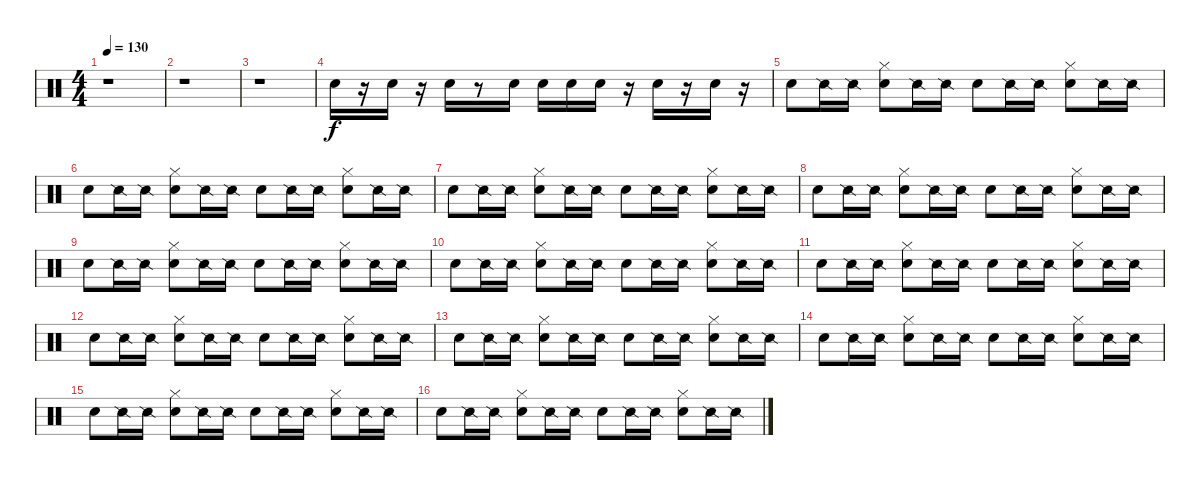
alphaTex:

\track "" {instrument percussion}
\staff {score}
\articulation defaults
\ts (4 4)
\tempo 130
\clef neutral
\ks c
r.1{dy f} |
r.1 |
r.1 |
"Snare (hit)".16 r.16 "Snare (hit)".16 r.16 "Snare (hit)".16 r.8 "Snare (hit)".16 "Snare (hit)".16 "Snare (hit)".16 "Snare (hit)".16 r.16 "Snare (hit)".16 r.16 "Snare (hit)".16 r.16 |
"Snare (hit)".8 "Snare (side stick) 2".16 "Snare (side stick) 2".16 ("Snare (hit)" "Hi-Hat (closed)").8 "Snare (side stick) 2".16 "Snare (side stick) 2".16 "Snare (hit)".8 "Snare (side stick) 2".16 "Snare (side stick) 2".16 ("Snare (hit)" "Hi-Hat (closed)").8 "Snare (side stick) 2".16 "Snare (side stick) 2".16 |
"Snare (hit)".8 "Snare (side stick) 2".16 "Snare (side stick) 2".16 ("Snare (hit)" "Hi-Hat (closed)").8 "Snare (side stick) 2".16 "Snare (side stick) 2".16 "Snare (hit)".8 "Snare (side stick) 2".16 "Snare (side stick) 2".16 ("Snare (hit)" "Hi-Hat (closed)").8 "Snare (side stick) 2".16 "Snare (side stick) 2".16 |
"Snare (hit)".8 "Snare (side stick) 2".16 "Snare (side stick) 2".16 ("Snare (hit)" "Hi-Hat (closed)").8 "Snare (side stick) 2".16 "Snare (side stick) 2".16 "Snare (hit)".8 "Snare (side stick) 2".16 "Snare (side stick) 2".16 ("Snare (hit)" "Hi-Hat (closed)").8 "Snare (side stick) 2".16 "Snare (side stick) 2".16 |
"Snare (hit)".8 "Snare (side stick) 2".16 "Snare (side stick) 2".16 ("Snare (hit)" "Hi-Hat (closed)").8 "Snare (side stick) 2".16 "Snare (side stick) 2".16 "Snare (hit)".8 "Snare (side stick) 2".16 "Snare (side stick) 2".16 ("Snare (hit)" "Hi-Hat (closed)").8 "Snare (side stick) 2".16 "Snare (side stick) 2".16 |
"Snare (hit)".8 "Snare (side stick) 2".16 "Snare (side stick) 2".16 ("Snare (hit)" "Hi-Hat (closed)").8 "Snare (side stick) 2".16 "Snare (side stick) 2".16 "Snare (hit)".8 "Snare (side stick) 2".16 "Snare (side stick) 2".16 ("Snare (hit)" "Hi-Hat (closed)").8 "Snare (side stick) 2".16 "Snare (side stick) 2".16 |
"Snare (hit)".8 "Snare (side stick) 2".16 "Snare (side stick) 2".16 ("Snare (hit)" "Hi-Hat (closed)").8 "Snare (side stick) 2".16 "Snare (side stick) 2".16 "Snare (hit)".8 "Snare (side stick) 2".16 "Snare (side stick) 2".16 ("Snare (hit)" "Hi-Hat (closed)").8 "Snare (side stick) 2".16 "Snare (side stick) 2".16 |
"Snare (hit)".8 "Snare (side stick) 2".16 "Snare (side stick) 2".16 ("Snare (hit)" "Hi-Hat (closed)").8 "Snare (side stick) 2".16 "Snare (side stick) 2".16 "Snare (hit)".8 "Snare (side stick) 2".16 "Snare (side stick) 2".16 ("Snare (hit)" "Hi-Hat (closed)").8 "Snare (side stick) 2".16 "Snare (side stick) 2".16 |
"Snare (hit)".8 "Snare (side stick) 2".16 "Snare (side stick) 2".16 ("Snare (hit)" "Hi-Hat (closed)").8 "Snare (side stick) 2".16 "Snare (side stick) 2".16 "Snare (hit)".8 "Snare (side stick) 2".16 "Snare (side stick) 2".16 ("Snare (hit)" "Hi-Hat (closed)").8 "Snare (side stick) 2".16 "Snare (side stick) 2".16 |
"Snare (hit)".8 "Snare (side stick) 2".16 "Snare (side stick) 2".16 ("Snare (hit)" "Hi-Hat (closed)").8 "Snare (side stick) 2".16 "Snare (side stick) 2".16 "Snare (hit)".8 "Snare (side stick) 2".16 "Snare (side stick) 2".16 ("Snare (hit)" "Hi-Hat (closed)").8 "Snare (side stick) 2".16 "Snare (side stick) 2".16 |
"Snare (hit)".8 "Snare (side stick) 2".16 "Snare (side stick) 2".16 ("Snare (hit)" "Hi-Hat (closed)").8 "Snare (side stick) 2".16 "Snare (side stick) 2".16 "Snare (hit)".8 "Snare (side stick) 2".16 "Snare (side stick) 2".16 ("Snare (hit)" "Hi-Hat (closed)").8 "Snare (side stick) 2".16 "Snare (side stick) 2".16 |
"Snare (hit)".8 "Snare (side stick) 2".16 "Snare (side stick) 2".16 ("Snare (hit)" "Hi-Hat (closed)").8 "Snare (side stick) 2".16 "Snare (side stick) 2".16 "Snare (hit)".8 "Snare (side stick) 2".16 "Snare (side stick) 2".16 ("Snare (hit)" "Hi-Hat (closed)").8 "Snare (side stick) 2".16 "Snare (side stick) 2".16 |
"Snare (hit)".8 "Snare (side stick) 2".16 "Snare (side stick) 2".16 ("Snare (hit)" "Hi-Hat (closed)").8 "Snare (side stick) 2".16 "Snare (side stick) 2".16 "Snare (hit)".8 "Snare (side stick) 2".16 "Snare (side stick) 2".16 ("Snare (hit)" "Hi-Hat (closed)").8 "Snare (side stick) 2".16 "Snare (side stick) 2".16
